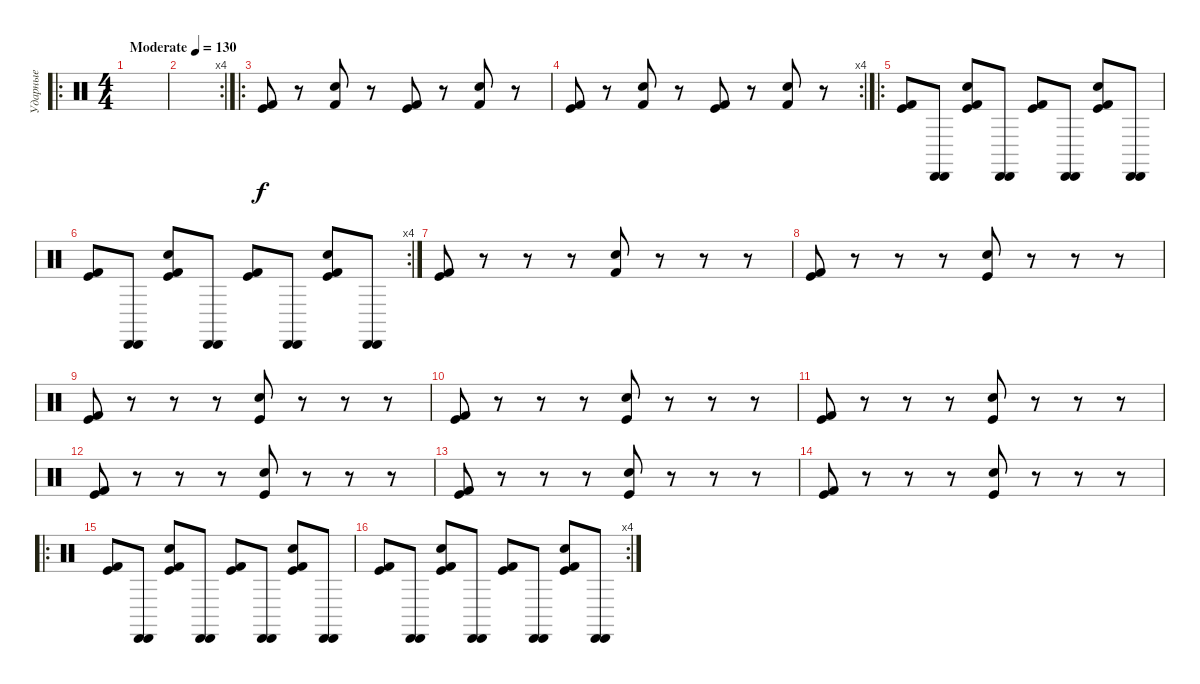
\track ("Ударные" "Ударные") {instrument percussion}
\staff {score}
\articulation defaults
\ro
\ts (4 4)
\tempo (130 "Moderate")
\clef neutral
\ks c
|
\rc 4
|
\ro
("Kick (hit) 2" "Kick (hit)").8 r.8 ("Hand Clap (hit)" "Kick (hit) 2").8 r.8 ("Kick (hit) 2" "Kick (hit)").8 r.8 ("Hand Clap (hit)" "Kick (hit) 2").8 r.8 |
\rc 4
("Kick (hit) 2" "Kick (hit)").8 r.8 ("Hand Clap (hit)" "Kick (hit) 2").8 r.8 ("Kick (hit) 2" "Kick (hit)").8 r.8 ("Hand Clap (hit)" "Kick (hit) 2").8 r.8 |
\ro
("Kick (hit)" "Kick (hit) 2").8 ("Cabasa (hit)" "Cabasa (hit)").8 ("Hand Clap (hit)" "Kick (hit) 2" "Kick (hit)").8 ("Cabasa (hit)" "Cabasa (hit)").8 ("Kick (hit)" "Kick (hit) 2").8 ("Cabasa (hit)" "Cabasa (hit)").8 ("Hand Clap (hit)" "Kick (hit) 2" "Kick (hit)").8 ("Cabasa (hit)" "Cabasa (hit)").8 |
\rc 4
("Kick (hit)" "Kick (hit) 2").8 ("Cabasa (hit)" "Cabasa (hit)").8 ("Hand Clap (hit)" "Kick (hit) 2" "Kick (hit)").8 ("Cabasa (hit)" "Cabasa (hit)").8 ("Kick (hit)" "Kick (hit) 2").8 ("Cabasa (hit)" "Cabasa (hit)").8 ("Hand Clap (hit)" "Kick (hit) 2" "Kick (hit)").8 ("Cabasa (hit)" "Cabasa (hit)").8 |
("Kick (hit) 2" "Kick (hit)").8 r.8 r.8 r.8 ("Hand Clap (hit)" "Kick (hit) 2").8 r.8 r.8 r.8 |
("Kick (hit) 2" "Kick (hit)").8 r.8 r.8 r.8 ("Hand Clap (hit)" "Kick (hit)").8 r.8 r.8 r.8 |
("Kick (hit) 2" "Kick (hit)").8 r.8 r.8 r.8 ("Hand Clap (hit)" "Kick (hit)").8 r.8 r.8 r.8 |
("Kick (hit) 2" "Kick (hit)").8 r.8 r.8 r.8 ("Hand Clap (hit)" "Kick (hit)").8 r.8 r.8 r.8 |
("Kick (hit) 2" "Kick (hit)").8 r.8 r.8 r.8 ("Hand Clap (hit)" "Kick (hit)").8 r.8 r.8 r.8 |
("Kick (hit) 2" "Kick (hit)").8 r.8 r.8 r.8 ("Hand Clap (hit)" "Kick (hit)").8 r.8 r.8 r.8 |
("Kick (hit) 2" "Kick (hit)").8 r.8 r.8 r.8 ("Hand Clap (hit)" "Kick (hit)").8 r.8 r.8 r.8 |
("Kick (hit) 2" "Kick (hit)").8 r.8 r.8 r.8 ("Hand Clap (hit)" "Kick (hit)").8 r.8 r.8 r.8 |
\ro
("Kick (hit)" "Kick (hit) 2").8 ("Cabasa (hit)" "Cabasa (hit)").8 ("Hand Clap (hit)" "Kick (hit) 2" "Kick (hit)").8 ("Cabasa (hit)" "Cabasa (hit)").8 ("Kick (hit)" "Kick (hit) 2").8 ("Cabasa (hit)" "Cabasa (hit)").8 ("Hand Clap (hit)" "Kick (hit) 2" "Kick (hit)").8 ("Cabasa (hit)" "Cabasa (hit)").8 |
\rc 4
("Kick (hit)" "Kick (hit) 2").8 ("Cabasa (hit)" "Cabasa (hit)").8 ("Hand Clap (hit)" "Kick (hit) 2" "Kick (hit)").8 ("Cabasa (hit)" "Cabasa (hit)").8 ("Kick (hit)" "Kick (hit) 2").8 ("Cabasa (hit)" "Cabasa (hit)").8 ("Hand Clap (hit)" "Kick (hit) 2" "Kick (hit)").8 ("Cabasa (hit)" "Cabasa (hit)").8
